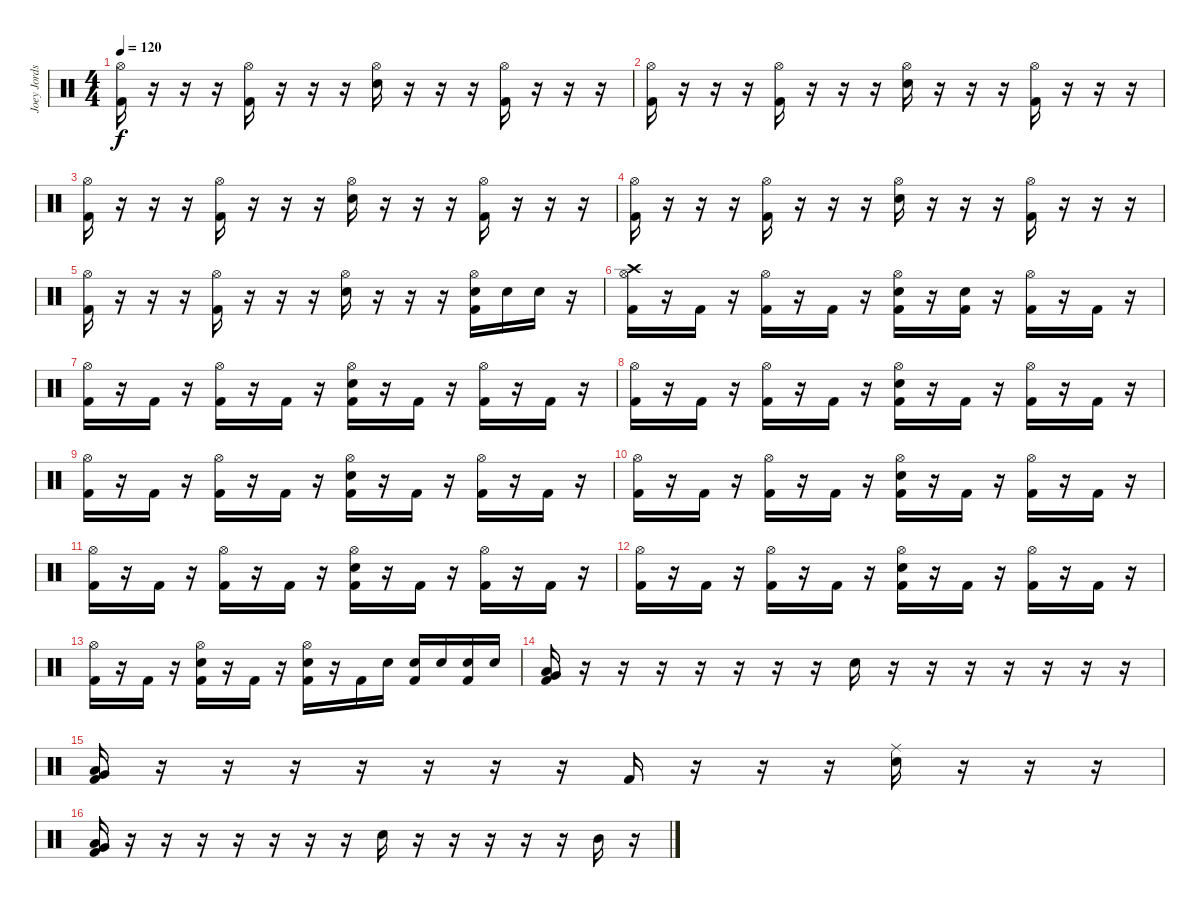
\track ("Joey Jordson" "Joey Jords") {instrument percussion}
\staff {score}
\articulation defaults
\ts (4 4)
\tempo 120
\clef neutral
\ks c
("Hi-Hat (open)" "Kick (hit) 2").16{dy f} r.16 r.16 r.16 ("Hi-Hat (open)" "Kick (hit) 2").16 r.16 r.16 r.16 ("Hi-Hat (open)" "Electric Snare (hit)").16 r.16 r.16 r.16 ("Hi-Hat (open)" "Kick (hit) 2").16 r.16 r.16 r.16 |
("Hi-Hat (open)" "Kick (hit) 2").16 r.16 r.16 r.16 ("Hi-Hat (open)" "Kick (hit) 2").16 r.16 r.16 r.16 ("Hi-Hat (open)" "Electric Snare (hit)").16 r.16 r.16 r.16 ("Hi-Hat (open)" "Kick (hit) 2").16 r.16 r.16 r.16 |
("Hi-Hat (open)" "Kick (hit) 2").16 r.16 r.16 r.16 ("Hi-Hat (open)" "Kick (hit) 2").16 r.16 r.16 r.16 ("Hi-Hat (open)" "Electric Snare (hit)").16 r.16 r.16 r.16 ("Hi-Hat (open)" "Kick (hit) 2").16 r.16 r.16 r.16 |
("Hi-Hat (open)" "Kick (hit) 2").16 r.16 r.16 r.16 ("Hi-Hat (open)" "Kick (hit) 2").16 r.16 r.16 r.16 ("Hi-Hat (open)" "Electric Snare (hit)").16 r.16 r.16 r.16 ("Hi-Hat (open)" "Kick (hit) 2").16 r.16 r.16 r.16 |
("Hi-Hat (open)" "Kick (hit) 2").16 r.16 r.16 r.16 ("Hi-Hat (open)" "Kick (hit) 2").16 r.16 r.16 r.16 ("Hi-Hat (open)" "Electric Snare (hit)").16 r.16 r.16 r.16 ("Hi-Hat (open)" "Electric Snare (hit)" "Kick (hit) 2").16 "Electric Snare (hit)".16 "Electric Snare (hit)".16 r.16 |
("Crash high (hit)" "Hi-Hat (open)" "Kick (hit) 2").16 r.16 "Kick (hit) 2".16 r.16 ("Hi-Hat (open)" "Kick (hit) 2").16 r.16 "Kick (hit) 2".16 r.16 ("Hi-Hat (open)" "Electric Snare (hit)" "Kick (hit) 2").16 r.16 ("Electric Snare (hit)" "Kick (hit) 2").16 r.16 ("Hi-Hat (open)" "Kick (hit) 2").16 r.16 "Kick (hit) 2".16 r.16 |
("Hi-Hat (open)" "Kick (hit) 2").16 r.16 "Kick (hit) 2".16 r.16 ("Hi-Hat (open)" "Kick (hit) 2").16 r.16 "Kick (hit) 2".16 r.16 ("Hi-Hat (open)" "Electric Snare (hit)" "Kick (hit) 2").16 r.16 "Kick (hit) 2".16 r.16 ("Hi-Hat (open)" "Kick (hit) 2").16 r.16 "Kick (hit) 2".16 r.16 |
("Hi-Hat (open)" "Kick (hit) 2").16 r.16 "Kick (hit) 2".16 r.16 ("Hi-Hat (open)" "Kick (hit) 2").16 r.16 "Kick (hit) 2".16 r.16 ("Hi-Hat (open)" "Electric Snare (hit)" "Kick (hit) 2").16 r.16 "Kick (hit) 2".16 r.16 ("Hi-Hat (open)" "Kick (hit) 2").16 r.16 "Kick (hit) 2".16 r.16 |
("Hi-Hat (open)" "Kick (hit) 2").16 r.16 "Kick (hit) 2".16 r.16 ("Hi-Hat (open)" "Kick (hit) 2").16 r.16 "Kick (hit) 2".16 r.16 ("Hi-Hat (open)" "Electric Snare (hit)" "Kick (hit) 2").16 r.16 "Kick (hit) 2".16 r.16 ("Hi-Hat (open)" "Kick (hit) 2").16 r.16 "Kick (hit) 2".16 r.16 |
("Hi-Hat (open)" "Kick (hit) 2").16 r.16 "Kick (hit) 2".16 r.16 ("Hi-Hat (open)" "Kick (hit) 2").16 r.16 "Kick (hit) 2".16 r.16 ("Hi-Hat (open)" "Electric Snare (hit)" "Kick (hit) 2").16 r.16 "Kick (hit) 2".16 r.16 ("Hi-Hat (open)" "Kick (hit) 2").16 r.16 "Kick (hit) 2".16 r.16 |
("Hi-Hat (open)" "Kick (hit) 2").16 r.16 "Kick (hit) 2".16 r.16 ("Hi-Hat (open)" "Kick (hit) 2").16 r.16 "Kick (hit) 2".16 r.16 ("Hi-Hat (open)" "Electric Snare (hit)" "Kick (hit) 2").16 r.16 "Kick (hit) 2".16 r.16 ("Hi-Hat (open)" "Kick (hit) 2").16 r.16 "Kick (hit) 2".16 r.16 |
("Hi-Hat (open)" "Kick (hit) 2").16 r.16 "Kick (hit) 2".16 r.16 ("Hi-Hat (open)" "Kick (hit) 2").16 r.16 "Kick (hit) 2".16 r.16 ("Hi-Hat (open)" "Electric Snare (hit)" "Kick (hit) 2").16 r.16 "Kick (hit) 2".16 r.16 ("Hi-Hat (open)" "Kick (hit) 2").16 r.16 "Kick (hit) 2".16 r.16 |
("Hi-Hat (open)" "Kick (hit) 2").16 r.16 "Kick (hit) 2".16 r.16 ("Hi-Hat (open)" "Electric Snare (hit)" "Kick (hit) 2").16 r.16 "Kick (hit) 2".16 r.16 ("Hi-Hat (open)" "Electric Snare (hit)" "Kick (hit) 2").16 r.16 "Kick (hit) 2".16 "Electric Snare (hit)".16 ("Electric Snare (hit)" "Kick (hit) 2").16 "Electric Snare (hit)".16 ("Electric Snare (hit)" "Kick (hit) 2").16 "Electric Snare (hit)".16 |
("Very Low Tom (hit)" "Low Tom (hit)" "Kick (hit) 2").16 r.16 r.16 r.16 r.16 r.16 r.16 r.16 "Electric Snare (hit)".16 r.16 r.16 r.16 r.16 r.16 r.16 r.16 |
("Very Low Tom (hit)" "Low Tom (hit)" "Kick (hit) 2").16 r.16 r.16 r.16 r.16 r.16 r.16 r.16 "Kick (hit) 2".16 r.16 r.16 r.16 ("Ride (middle)" "Electric Snare (hit)").16 r.16 r.16 r.16 |
("Low Tom (hit)" "Very Low Tom (hit)" "Kick (hit) 2").16 r.16 r.16 r.16 r.16 r.16 r.16 r.16 "Electric Snare (hit)".16 r.16 r.16 r.16 r.16 r.16 "Mid Tom (hit)".16 r.16
